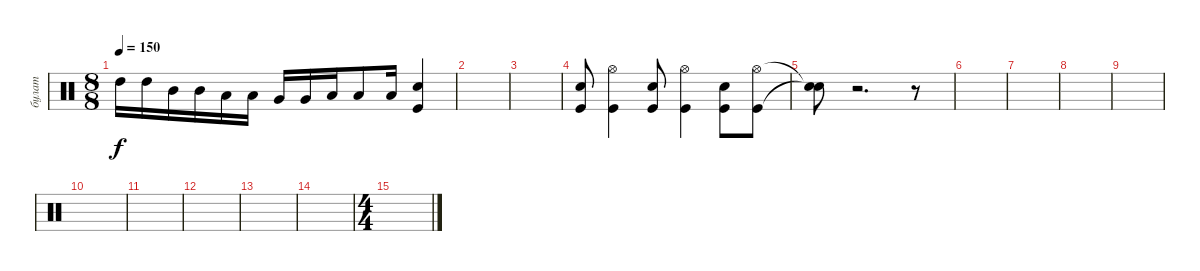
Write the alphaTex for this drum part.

\track ("булат" "булат") {instrument percussion}
\staff {score}
\articulation defaults
\ts (8 8)
\tempo 150
\clef neutral
\ks c "High Tom (hit)".16{dy f} "High Tom (hit)".16 "Mid Tom (hit)".16 "Mid Tom (hit)".16 "Low Tom (hit)".16 "Low Tom (hit)".16 "Very Low Tom (hit)".16 "Very Low Tom (hit)".16 "Low Floor Tom (hit)".16 "Low Floor Tom (hit)".8 "Low Floor Tom (hit)".16
("Kick (hit)" "Snare (hit) 2").4 |
|
|
("Kick (hit)" "Snare (hit) 2").8 ("Hi-Hat (open)" "Kick (hit)").4 ("Kick (hit)" "Snare (hit) 2").8 ("Hi-Hat (open)" "Kick (hit)").4 ("Kick (hit)" "Snare (hit) 2").8 ("Hi-Hat (open)" "Kick (hit)").8 |
("Snare (hit)"{t} "Snare (hit)"{t}).8 r.2{d} r.8 |
|
|
|
|
|
|
|
|
|
\ts (4 4)
